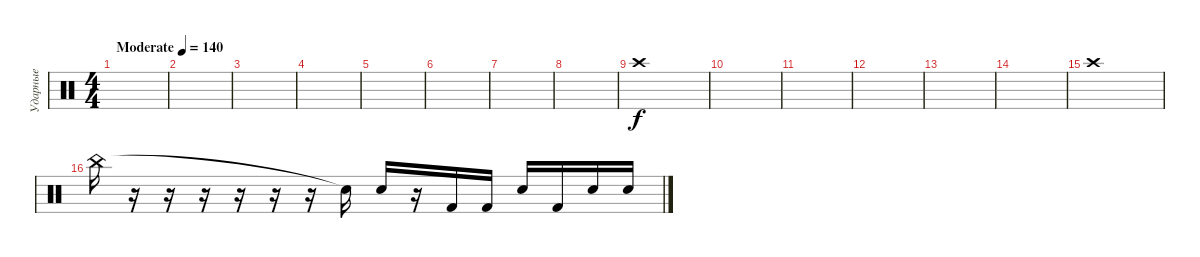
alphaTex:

\track ("Ударные" "Ударные") {instrument percussion}
\staff {score}
\articulation defaults
\ts (4 4)
\tempo (140 "Moderate")
\clef neutral
\ks c
|
|
|
|
|
|
|
|
"Crash high (hit)".1 |
|
|
|
|
|
"Crash high (hit)".1 |
"China (hit)".16 r.16 r.16 r.16 r.16 r.16 r.16 "Snare (hit)"{t}.16 "Electric Snare (hit)".16 r.16 "Kick (hit) 2".16 "Kick (hit) 2".16 "Electric Snare (hit)".16 "Kick (hit) 2".16 "Electric Snare (hit)".16 "Electric Snare (hit)".16
